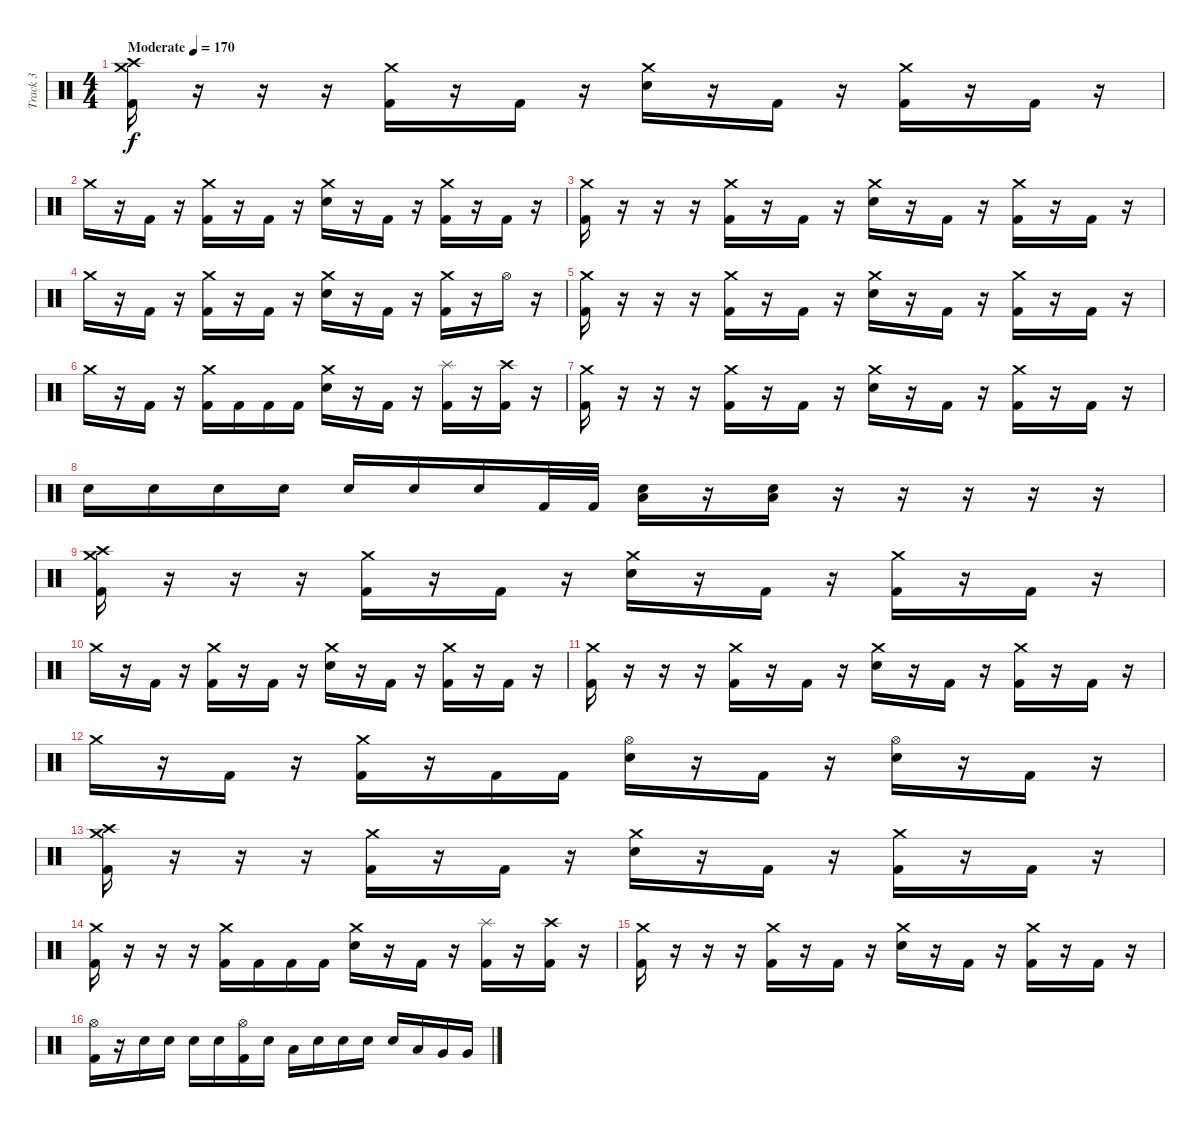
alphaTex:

\track ("Track 3" "Track 3") {instrument percussion}
\staff {score}
\articulation defaults
\ts (4 4)
\tempo (170 "Moderate")
\clef neutral
\ks c
("Kick (hit) 2" "Crash medium (hit)" "Crash high (hit)").16{dy f} r.16 r.16 r.16 ("Kick (hit) 2" "Crash medium (hit)").16 r.16 "Kick (hit) 2".16 r.16 ("Crash medium (hit)" "Electric Snare (hit)").16 r.16 "Kick (hit) 2".16 r.16 ("Kick (hit) 2" "Crash medium (hit)").16 r.16 "Kick (hit) 2".16 r.16 |
"Crash medium (hit)".16 r.16 "Kick (hit) 2".16 r.16 ("Kick (hit) 2" "Crash medium (hit)").16 r.16 "Kick (hit) 2".16 r.16 ("Crash medium (hit)" "Electric Snare (hit)").16 r.16 "Kick (hit) 2".16 r.16 ("Kick (hit) 2" "Crash medium (hit)").16 r.16 "Kick (hit) 2".16 r.16 |
("Kick (hit) 2" "Crash medium (hit)").16 r.16 r.16 r.16 ("Kick (hit) 2" "Crash medium (hit)").16 r.16 "Kick (hit) 2".16 r.16 ("Crash medium (hit)" "Electric Snare (hit)").16 r.16 "Kick (hit) 2".16 r.16 ("Kick (hit) 2" "Crash medium (hit)").16 r.16 "Kick (hit) 2".16 r.16 |
"Crash medium (hit)".16 r.16 "Kick (hit) 2".16 r.16 ("Kick (hit) 2" "Crash medium (hit)").16 r.16 "Kick (hit) 2".16 r.16 ("Crash medium (hit)" "Electric Snare (hit)").16 r.16 "Kick (hit) 2".16 r.16 ("Kick (hit) 2" "Crash medium (hit)").16 r.16 "Hi-Hat (open)".16 r.16 |
("Kick (hit) 2" "Crash medium (hit)").16 r.16 r.16 r.16 ("Kick (hit) 2" "Crash medium (hit)").16 r.16 "Kick (hit) 2".16 r.16 ("Crash medium (hit)" "Electric Snare (hit)").16 r.16 "Kick (hit) 2".16 r.16 ("Kick (hit) 2" "Crash medium (hit)").16 r.16 "Kick (hit) 2".16 r.16 |
"Crash medium (hit)".16 r.16 "Kick (hit) 2".16 r.16 ("Kick (hit) 2" "Crash medium (hit)").16 "Kick (hit) 2".16 "Kick (hit) 2".16 "Kick (hit) 2".16 ("Crash medium (hit)" "Electric Snare (hit)").16 r.16 "Kick (hit) 2".16 r.16 ("Kick (hit) 2" "Splash (hit)").16 r.16 ("Kick (hit) 2" "Crash high (hit)").16 r.16 |
("Kick (hit) 2" "Crash medium (hit)").16 r.16 r.16 r.16 ("Kick (hit) 2" "Crash medium (hit)").16 r.16 "Kick (hit) 2".16 r.16 ("Crash medium (hit)" "Electric Snare (hit)").16 r.16 "Kick (hit) 2".16 r.16 ("Kick (hit) 2" "Crash medium (hit)").16 r.16 "Kick (hit) 2".16 r.16 |
"Electric Snare (hit)".16 "Electric Snare (hit)".16 "Electric Snare (hit)".16 "Electric Snare (hit)".16 "Electric Snare (hit)".16 "Electric Snare (hit)".16 "Electric Snare (hit)".16 "Kick (hit) 2".32 "Kick (hit) 2".32 ("Low Floor Tom (hit)" "Electric Snare (hit)").16 r.16 ("Low Floor Tom (hit)" "Electric Snare (hit)").16 r.16 r.16 r.16 r.16 r.16 |
("Kick (hit) 2" "Crash medium (hit)" "Crash high (hit)").16 r.16 r.16 r.16 ("Kick (hit) 2" "Crash medium (hit)").16 r.16 "Kick (hit) 2".16 r.16 ("Crash medium (hit)" "Electric Snare (hit)").16 r.16 "Kick (hit) 2".16 r.16 ("Kick (hit) 2" "Crash medium (hit)").16 r.16 "Kick (hit) 2".16 r.16 |
"Crash medium (hit)".16 r.16 "Kick (hit) 2".16 r.16 ("Kick (hit) 2" "Crash medium (hit)").16 r.16 "Kick (hit) 2".16 r.16 ("Crash medium (hit)" "Electric Snare (hit)").16 r.16 "Kick (hit) 2".16 r.16 ("Kick (hit) 2" "Crash medium (hit)").16 r.16 "Kick (hit) 2".16 r.16 |
("Kick (hit) 2" "Crash medium (hit)").16 r.16 r.16 r.16 ("Kick (hit) 2" "Crash medium (hit)").16 r.16 "Kick (hit) 2".16 r.16 ("Crash medium (hit)" "Electric Snare (hit)").16 r.16 "Kick (hit) 2".16 r.16 ("Kick (hit) 2" "Crash medium (hit)").16 r.16 "Kick (hit) 2".16 r.16 |
"Crash medium (hit)".16 r.16 "Kick (hit) 2".16 r.16 ("Kick (hit) 2" "Crash medium (hit)").16 r.16 "Kick (hit) 2".16 "Kick (hit) 2".16 ("Hi-Hat (open)" "Electric Snare (hit)").16 r.16 "Kick (hit) 2".16 r.16 ("Electric Snare (hit)" "Hi-Hat (open)").16 r.16 "Kick (hit) 2".16 r.16 |
("Kick (hit) 2" "Crash high (hit)" "Crash medium (hit)").16 r.16 r.16 r.16 ("Kick (hit) 2" "Crash medium (hit)").16 r.16 "Kick (hit) 2".16 r.16 ("Crash medium (hit)" "Electric Snare (hit)").16 r.16 "Kick (hit) 2".16 r.16 ("Kick (hit) 2" "Crash medium (hit)").16 r.16 "Kick (hit) 2".16 r.16 |
("Kick (hit) 2" "Crash medium (hit)").16 r.16 r.16 r.16 ("Kick (hit) 2" "Crash medium (hit)").16 "Kick (hit) 2".16 "Kick (hit) 2".16 "Kick (hit) 2".16 ("Electric Snare (hit)" "Crash medium (hit)").16 r.16 "Kick (hit) 2".16 r.16 ("Kick (hit) 2" "Splash (hit)").16 r.16 ("Kick (hit) 2" "Crash high (hit)").16 r.16 |
("Kick (hit) 2" "Crash medium (hit)").16 r.16 r.16 r.16 ("Kick (hit) 2" "Crash medium (hit)").16 r.16 "Kick (hit) 2".16 r.16 ("Crash medium (hit)" "Electric Snare (hit)").16 r.16 "Kick (hit) 2".16 r.16 ("Kick (hit) 2" "Crash medium (hit)").16 r.16 "Kick (hit) 2".16 r.16 |
("Kick (hit) 2" "Hi-Hat (open)").16 r.16 "Electric Snare (hit)".16 "Electric Snare (hit)".16 "Electric Snare (hit)".16 "Electric Snare (hit)".16 ("Kick (hit) 2" "Hi-Hat (open)").16 "Electric Snare (hit)".16 "Low Tom (hit)".16 "Electric Snare (hit)".16 "Electric Snare (hit)".16 "Electric Snare (hit)".16 "Electric Snare (hit)".16 "Low Tom (hit)".16 "Very Low Tom (hit)".16 "Very Low Tom (hit)".16
